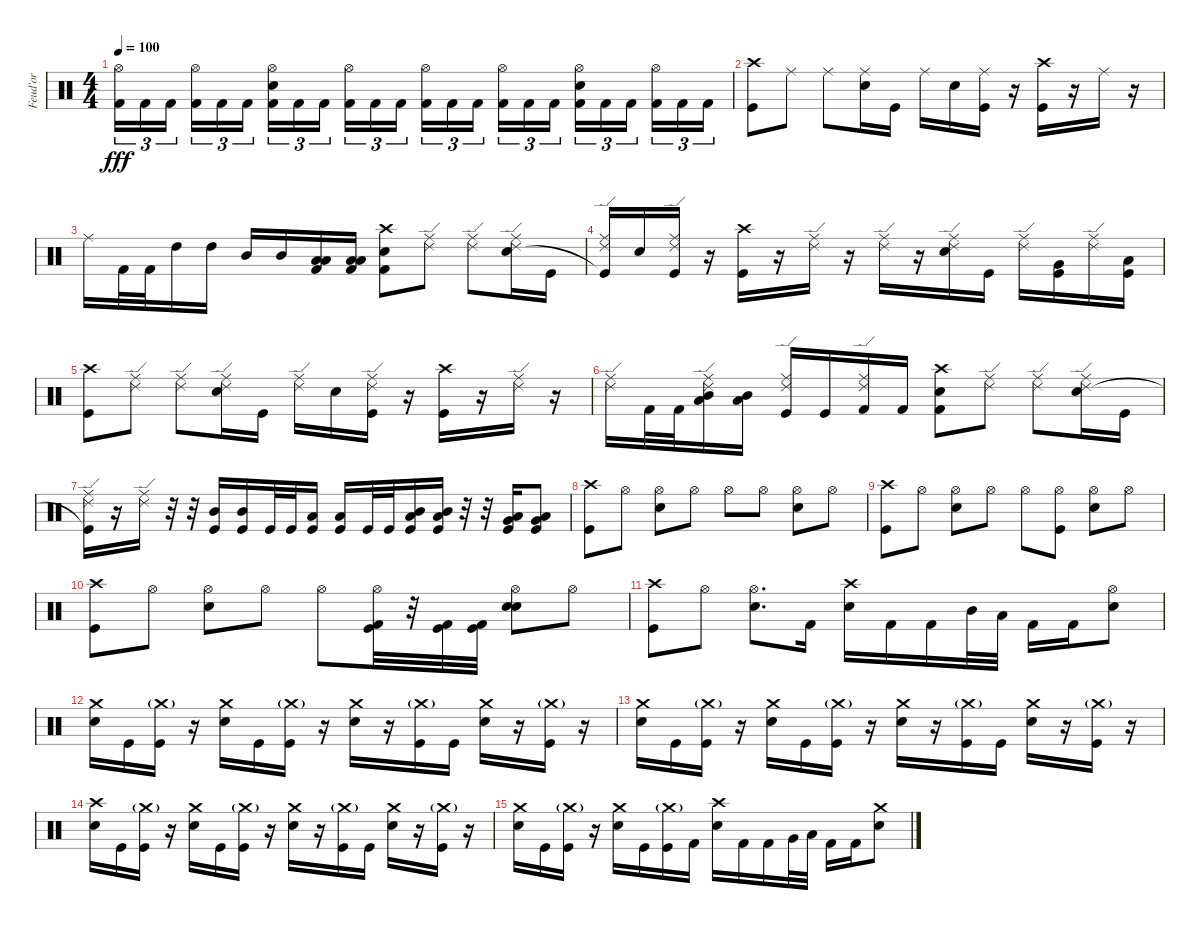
\track ("Feud'or" "Feud'or") {instrument percussion}
\staff {score}
\articulation defaults
\ts (4 4)
\tempo 100
\clef neutral
\ks c
("Hi-Hat (open)" "Kick (hit) 2").16{tu (3 2) dy fff} "Kick (hit) 2".16{tu (3 2)} "Kick (hit) 2".16{tu (3 2) beam splitsecondary} ("Hi-Hat (open)" "Kick (hit) 2").16{tu (3 2)} "Kick (hit) 2".16{tu (3 2)} "Kick (hit) 2".16{tu (3 2)} ("Hi-Hat (open)" "Snare (hit) 2" "Kick (hit) 2").16{tu (3 2)} "Kick (hit) 2".16{tu (3 2)} "Kick (hit) 2".16{tu (3 2) beam splitsecondary} ("Hi-Hat (open)" "Kick (hit) 2").16{tu (3 2)} "Kick (hit) 2".16{tu (3 2)} "Kick (hit) 2".16{tu (3 2)} ("Hi-Hat (open)" "Kick (hit) 2").16{tu (3 2)} "Kick (hit) 2".16{tu (3 2)} "Kick (hit) 2".16{tu (3 2) beam splitsecondary} ("Hi-Hat (open)" "Kick (hit) 2").16{tu (3 2)} "Kick (hit) 2".16{tu (3 2)} "Kick (hit) 2".16{tu (3 2)} ("Hi-Hat (open)" "Snare (hit) 2" "Kick (hit) 2").16{tu (3 2)} "Kick (hit) 2".16{tu (3 2)} "Kick (hit) 2".16{tu (3 2) beam splitsecondary} ("Hi-Hat (open)" "Kick (hit) 2").16{tu (3 2)} "Kick (hit) 2".16{tu (3 2)} "Kick (hit) 2".16{tu (3 2)} |
("Crash high (hit)" "Kick (hit)").8 "Ride (middle)".8 "Ride (middle)".8 ("Ride (middle)" "Snare (hit) 2").16 "Kick (hit)".16 "Ride (middle)".16 "Snare (hit) 2".16 ("Ride (middle)" "Kick (hit)").16 r.16 ("Crash high (hit)" "Kick (hit)").16 r.16 "Ride (middle)".16 r.16 |
"Ride (middle)".16 "Kick (hit) 2".32 "Kick (hit) 2".32 "High Tom (hit)".16 "High Tom (hit)".16 "Mid Tom (hit)".16 "Mid Tom (hit)".16 ("Low Tom (hit)" "Low Floor Tom (hit)" "Kick (hit) 2").16 ("Low Tom (hit)" "Low Floor Tom (hit)" "Kick (hit) 2").16 ("Crash high (hit)" "Snare (hit) 2" "Kick (hit) 2").8 ("Ride (middle)" "Ride (edge) 2").8 ("Ride (middle)" "Ride (edge) 2").8 ("Ride (middle)" "Ride (edge) 2" "Snare (hit) 2").16 "Kick (hit)".16 |
("Ride (middle)" "Ride (edge) 2" "Kick (hit)"{t}).16 "Snare (hit) 2".16 ("Ride (middle)" "Ride (edge) 2" "Kick (hit)").16 r.16 ("Crash high (hit)" "Kick (hit)").16 r.16 ("Ride (middle)" "Ride (edge) 2").16 r.16 ("Ride (middle)" "Ride (edge) 2").16 r.16 ("Ride (middle)" "Ride (edge) 2" "Snare (hit) 2").16 "Kick (hit)".16 ("Ride (middle)" "Ride (edge) 2").16 ("Very Low Tom (hit)" "Kick (hit)").16 ("Ride (middle)" "Ride (edge) 2").16 ("Low Floor Tom (hit)" "Kick (hit)").16 |
("Crash high (hit)" "Kick (hit)").8 ("Ride (middle)" "Ride (edge) 2").8 ("Ride (middle)" "Ride (edge) 2").8 ("Ride (middle)" "Ride (edge) 2" "Snare (hit) 2").16 "Kick (hit)".16 ("Ride (middle)" "Ride (edge) 2").16 "Snare (hit) 2".16 ("Ride (middle)" "Ride (edge) 2" "Kick (hit)").16 r.16 ("Crash high (hit)" "Kick (hit)").16 r.16 ("Ride (middle)" "Ride (edge) 2").16 r.16 |
("Ride (middle)" "Ride (edge) 2").16 "Kick (hit) 2".32 "Kick (hit) 2".32 ("Ride (middle)" "Ride (edge) 2" "Mid Tom (hit)" "Low Tom (hit)").16 ("Mid Tom (hit)" "Low Tom (hit)").16 ("Ride (middle)" "Ride (edge) 2" "Kick (hit)").16 "Kick (hit)".16 ("Ride (middle)" "Ride (edge) 2" "Kick (hit) 2").16 "Kick (hit) 2".16 ("Crash high (hit)" "Snare (hit) 2" "Kick (hit) 2").8 ("Ride (middle)" "Ride (edge) 2").8 ("Ride (middle)" "Ride (edge) 2").8 ("Ride (middle)" "Ride (edge) 2" "Snare (hit) 2").16 "Kick (hit)".16 |
("Ride (middle)" "Ride (edge) 2" "Kick (hit)"{t}).16 r.16 ("Ride (middle)" "Ride (edge) 2").16 r.32 r.32 ("Mid Tom (hit)" "Kick (hit)").16 ("Mid Tom (hit)" "Kick (hit)").16 "Kick (hit)".32 "Kick (hit)".32 ("Low Tom (hit)" "Kick (hit)").16 ("Low Tom (hit)" "Kick (hit)").16 "Kick (hit)".32 "Kick (hit)".32 ("Mid Tom (hit)" "Low Tom (hit)" "Kick (hit)").16 ("Mid Tom (hit)" "Low Tom (hit)" "Kick (hit)").16 r.32 r.32 ("Low Tom (hit)" "Very Low Tom (hit)" "Kick (hit)").16 ("Low Tom (hit)" "Very Low Tom (hit)" "Kick (hit)").8 |
("Crash high (hit)" "Kick (hit)").8 "Hi-Hat (open)".8 ("Hi-Hat (open)" "Snare (hit) 2").8 "Hi-Hat (open)".8 "Hi-Hat (open)".8 "Hi-Hat (open)".8 ("Hi-Hat (open)" "Snare (hit) 2").8 "Hi-Hat (open)".8 |
("Crash high (hit)" "Kick (hit)").8 "Hi-Hat (open)".8 ("Hi-Hat (open)" "Snare (hit) 2").8 "Hi-Hat (open)".8 "Hi-Hat (open)".8 ("Hi-Hat (open)" "Kick (hit)").8 ("Hi-Hat (open)" "Snare (hit) 2").8 "Hi-Hat (open)".8 |
("Crash high (hit)" "Kick (hit)").8 "Hi-Hat (open)".8 ("Hi-Hat (open)" "Snare (hit) 2").8 "Hi-Hat (open)".8 "Hi-Hat (open)".8 ("Hi-Hat (open)" "Kick (hit) 2" "Kick (hit)").32 r.32 ("Kick (hit) 2" "Kick (hit)").32 ("Kick (hit) 2" "Kick (hit)").32 ("Hi-Hat (open)" "Electric Snare (hit)" "Snare (hit) 2").8 "Hi-Hat (open)".8 |
("Crash high (hit)" "Kick (hit)").8 "Hi-Hat (open)".8 ("Hi-Hat (open)" "Snare (hit) 2").8{d} "Kick (hit) 2".16 ("Crash high (hit)" "Snare (hit) 2").16 "Kick (hit) 2".16 "Kick (hit) 2".16 "Mid Tom (hit)".32 "Low Tom (hit)".32 "Kick (hit) 2".16 "Kick (hit) 2".16 ("Hi-Hat (open)" "Snare (hit) 2").8 |
("Crash medium (hit)" "Snare (hit) 2").16 "Kick (hit)".16 ("Crash medium (hit)"{g} "Kick (hit)").16 r.16 ("Crash medium (hit)" "Snare (hit) 2").16 "Kick (hit)".16 ("Crash medium (hit)"{g} "Kick (hit)").16 r.16 ("Crash medium (hit)" "Snare (hit) 2").16 r.16 ("Crash medium (hit)"{g} "Kick (hit)").16 "Kick (hit)".16 ("Crash medium (hit)" "Snare (hit) 2").16 r.16 ("Crash medium (hit)"{g} "Kick (hit)").16 r.16 |
("Crash medium (hit)" "Snare (hit) 2").16 "Kick (hit)".16 ("Crash medium (hit)"{g} "Kick (hit)").16 r.16 ("Crash medium (hit)" "Snare (hit) 2").16 "Kick (hit)".16 ("Crash medium (hit)"{g} "Kick (hit)").16 r.16 ("Crash medium (hit)" "Snare (hit) 2").16 r.16 ("Crash medium (hit)"{g} "Kick (hit)").16 "Kick (hit)".16 ("Crash medium (hit)" "Snare (hit) 2").16 r.16 ("Crash medium (hit)"{g} "Kick (hit)").16 r.16 |
("Crash high (hit)" "Snare (hit) 2").16 "Kick (hit)".16 ("Crash medium (hit)"{g} "Kick (hit)").16 r.16 ("Crash medium (hit)" "Snare (hit) 2").16 "Kick (hit)".16 ("Crash medium (hit)"{g} "Kick (hit)").16 r.16 ("Crash medium (hit)" "Snare (hit) 2").16 r.16 ("Crash medium (hit)"{g} "Kick (hit)").16 "Kick (hit)".16 ("Crash medium (hit)" "Snare (hit) 2").16 r.16 ("Crash medium (hit)"{g} "Kick (hit)").16 r.16 |
("Crash medium (hit)" "Snare (hit) 2").16 "Kick (hit)".16 ("Crash medium (hit)"{g} "Kick (hit)").16 r.16 ("Crash medium (hit)" "Snare (hit) 2").16 "Kick (hit)".16 ("Crash medium (hit)"{g} "Kick (hit)").16 "Kick (hit) 2".16 ("Crash high (hit)" "Snare (hit) 2").16 "Kick (hit) 2".16 "Kick (hit) 2".16 "Very Low Tom (hit)".32 "Low Floor Tom (hit)".32 "Kick (hit) 2".16 "Kick (hit) 2".16 ("Crash medium (hit)" "Snare (hit) 2").8
